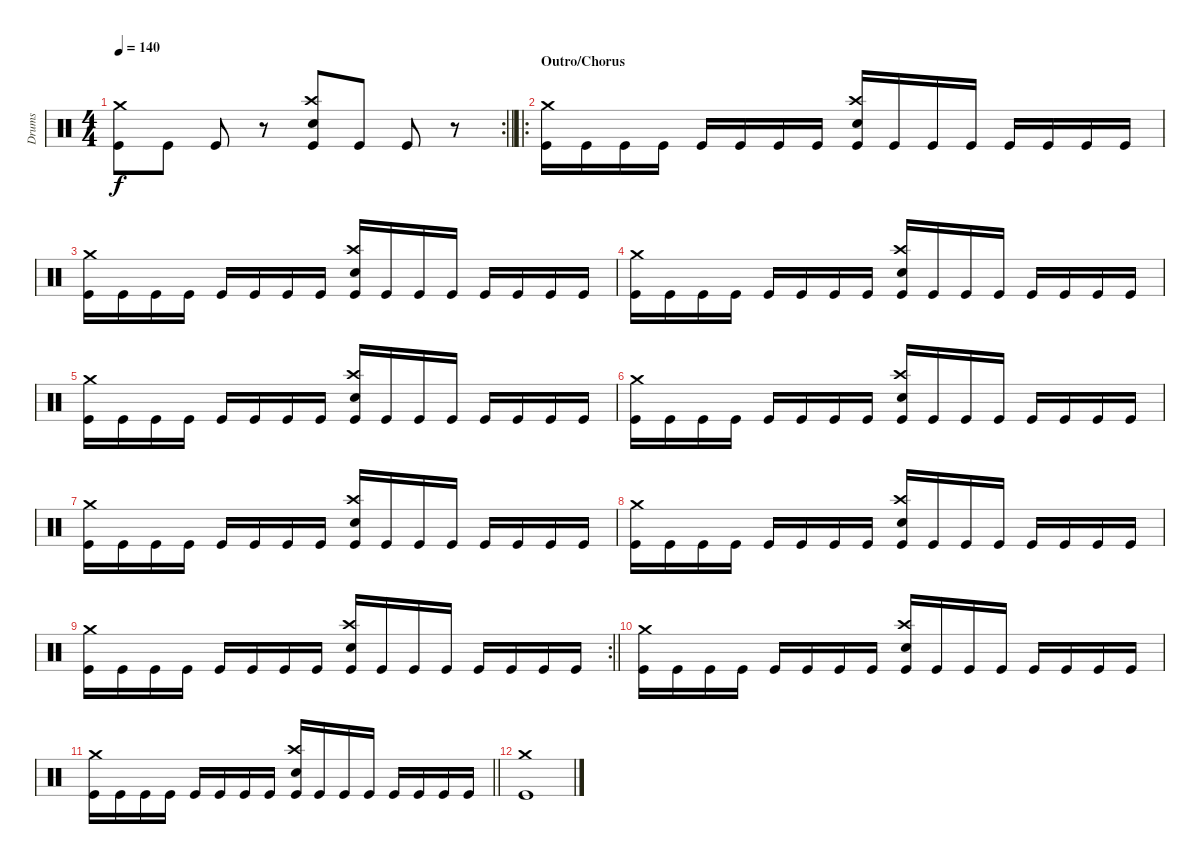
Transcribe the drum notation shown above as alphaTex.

\track ("Drums" "Drums") {instrument percussion}
\staff {score}
\articulation defaults
\rc 2
\ts (4 4)
\tempo 140
\clef neutral
\barLineRight lightlight
\ks c
("Crash medium (hit)" "Kick (hit)").8{dy f} "Kick (hit)".8 "Kick (hit)".8 r.8 ("Crash high (hit)" "Snare (hit) 2" "Kick (hit)").8 "Kick (hit)".8 "Kick (hit)".8 r.8 |
\ro
\section ("" "Outro/Chorus")
("Crash medium (hit)" "Kick (hit)").16 "Kick (hit)".16 "Kick (hit)".16 "Kick (hit)".16 "Kick (hit)".16 "Kick (hit)".16 "Kick (hit)".16 "Kick (hit)".16 ("Crash high (hit)" "Snare (hit) 2" "Kick (hit)").16 "Kick (hit)".16 "Kick (hit)".16 "Kick (hit)".16 "Kick (hit)".16 "Kick (hit)".16 "Kick (hit)".16 "Kick (hit)".16 |
("Crash medium (hit)" "Kick (hit)").16 "Kick (hit)".16 "Kick (hit)".16 "Kick (hit)".16 "Kick (hit)".16 "Kick (hit)".16 "Kick (hit)".16 "Kick (hit)".16 ("Crash high (hit)" "Snare (hit) 2" "Kick (hit)").16 "Kick (hit)".16 "Kick (hit)".16 "Kick (hit)".16 "Kick (hit)".16 "Kick (hit)".16 "Kick (hit)".16 "Kick (hit)".16 |
("Crash medium (hit)" "Kick (hit)").16 "Kick (hit)".16 "Kick (hit)".16 "Kick (hit)".16 "Kick (hit)".16 "Kick (hit)".16 "Kick (hit)".16 "Kick (hit)".16 ("Crash high (hit)" "Snare (hit) 2" "Kick (hit)").16 "Kick (hit)".16 "Kick (hit)".16 "Kick (hit)".16 "Kick (hit)".16 "Kick (hit)".16 "Kick (hit)".16 "Kick (hit)".16 |
("Crash medium (hit)" "Kick (hit)").16 "Kick (hit)".16 "Kick (hit)".16 "Kick (hit)".16 "Kick (hit)".16 "Kick (hit)".16 "Kick (hit)".16 "Kick (hit)".16 ("Crash high (hit)" "Snare (hit) 2" "Kick (hit)").16 "Kick (hit)".16 "Kick (hit)".16 "Kick (hit)".16 "Kick (hit)".16 "Kick (hit)".16 "Kick (hit)".16 "Kick (hit)".16 |
("Crash medium (hit)" "Kick (hit)").16 "Kick (hit)".16 "Kick (hit)".16 "Kick (hit)".16 "Kick (hit)".16 "Kick (hit)".16 "Kick (hit)".16 "Kick (hit)".16 ("Crash high (hit)" "Snare (hit) 2" "Kick (hit)").16 "Kick (hit)".16 "Kick (hit)".16 "Kick (hit)".16 "Kick (hit)".16 "Kick (hit)".16 "Kick (hit)".16 "Kick (hit)".16 |
("Crash medium (hit)" "Kick (hit)").16 "Kick (hit)".16 "Kick (hit)".16 "Kick (hit)".16 "Kick (hit)".16 "Kick (hit)".16 "Kick (hit)".16 "Kick (hit)".16 ("Crash high (hit)" "Snare (hit) 2" "Kick (hit)").16 "Kick (hit)".16 "Kick (hit)".16 "Kick (hit)".16 "Kick (hit)".16 "Kick (hit)".16 "Kick (hit)".16 "Kick (hit)".16 |
("Crash medium (hit)" "Kick (hit)").16 "Kick (hit)".16 "Kick (hit)".16 "Kick (hit)".16 "Kick (hit)".16 "Kick (hit)".16 "Kick (hit)".16 "Kick (hit)".16 ("Crash high (hit)" "Snare (hit) 2" "Kick (hit)").16 "Kick (hit)".16 "Kick (hit)".16 "Kick (hit)".16 "Kick (hit)".16 "Kick (hit)".16 "Kick (hit)".16 "Kick (hit)".16 |
\rc 2
\barLineRight lightlight
("Crash medium (hit)" "Kick (hit)").16 "Kick (hit)".16 "Kick (hit)".16 "Kick (hit)".16 "Kick (hit)".16 "Kick (hit)".16 "Kick (hit)".16 "Kick (hit)".16 ("Crash high (hit)" "Snare (hit) 2" "Kick (hit)").16 "Kick (hit)".16 "Kick (hit)".16 "Kick (hit)".16 "Kick (hit)".16 "Kick (hit)".16 "Kick (hit)".16 "Kick (hit)".16 |
("Crash medium (hit)" "Kick (hit)").16 "Kick (hit)".16 "Kick (hit)".16 "Kick (hit)".16 "Kick (hit)".16 "Kick (hit)".16 "Kick (hit)".16 "Kick (hit)".16 ("Crash high (hit)" "Snare (hit) 2" "Kick (hit)").16 "Kick (hit)".16 "Kick (hit)".16 "Kick (hit)".16 "Kick (hit)".16 "Kick (hit)".16 "Kick (hit)".16 "Kick (hit)".16 |
\barLineRight lightlight
("Crash medium (hit)" "Kick (hit)").16 "Kick (hit)".16 "Kick (hit)".16 "Kick (hit)".16 "Kick (hit)".16 "Kick (hit)".16 "Kick (hit)".16 "Kick (hit)".16 ("Crash high (hit)" "Snare (hit) 2" "Kick (hit)").16 "Kick (hit)".16 "Kick (hit)".16 "Kick (hit)".16 "Kick (hit)".16 "Kick (hit)".16 "Kick (hit)".16 "Kick (hit)".16 |
("Crash medium (hit)" "Kick (hit)").1
